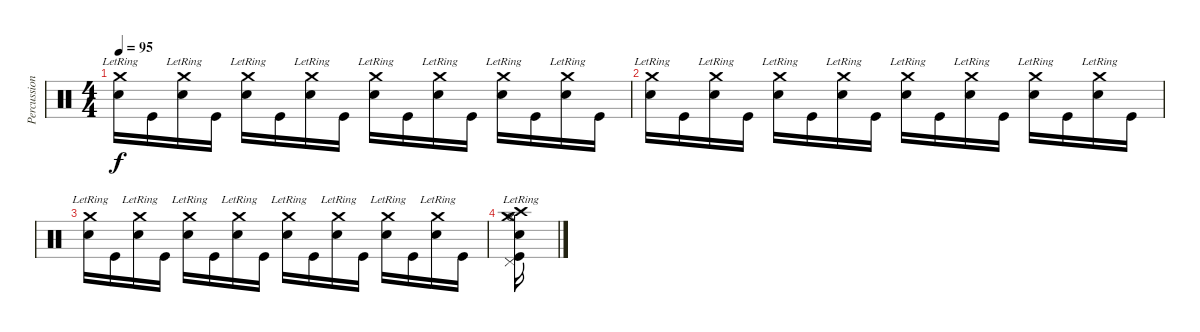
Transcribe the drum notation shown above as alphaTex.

\track ("Percussion" "Percussion") {instrument percussion}
\staff {score}
\articulation defaults
\ts (4 4)
\tempo 95
\clef neutral
\ks c
("Crash medium (hit)"{lr} "Snare (hit) 2").16{dy f} "Kick (hit)".16 ("Crash medium (hit)"{lr} "Snare (hit) 2").16 "Kick (hit)".16 ("Crash medium (hit)"{lr} "Snare (hit) 2").16 "Kick (hit)".16 ("Crash medium (hit)"{lr} "Snare (hit) 2").16 "Kick (hit)".16 ("Crash medium (hit)"{lr} "Snare (hit) 2").16 "Kick (hit)".16 ("Crash medium (hit)"{lr} "Snare (hit) 2").16 "Kick (hit)".16 ("Crash medium (hit)"{lr} "Snare (hit) 2").16 "Kick (hit)".16 ("Crash medium (hit)"{lr} "Snare (hit) 2").16 "Kick (hit)".16 |
("Crash medium (hit)"{lr} "Snare (hit) 2").16 "Kick (hit)".16 ("Crash medium (hit)"{lr} "Snare (hit) 2").16 "Kick (hit)".16 ("Crash medium (hit)"{lr} "Snare (hit) 2").16 "Kick (hit)".16 ("Crash medium (hit)"{lr} "Snare (hit) 2").16 "Kick (hit)".16 ("Crash medium (hit)"{lr} "Snare (hit) 2").16 "Kick (hit)".16 ("Crash medium (hit)"{lr} "Snare (hit) 2").16 "Kick (hit)".16 ("Crash medium (hit)"{lr} "Snare (hit) 2").16 "Kick (hit)".16 ("Crash medium (hit)"{lr} "Snare (hit) 2").16 "Kick (hit)".16 |
("Crash medium (hit)"{lr} "Snare (hit) 2").16 "Kick (hit)".16 ("Crash medium (hit)"{lr} "Snare (hit) 2").16 "Kick (hit)".16 ("Crash medium (hit)"{lr} "Snare (hit) 2").16 "Kick (hit)".16 ("Crash medium (hit)"{lr} "Snare (hit) 2").16 "Kick (hit)".16 ("Crash medium (hit)"{lr} "Snare (hit) 2").16 "Kick (hit)".16 ("Crash medium (hit)"{lr} "Snare (hit) 2").16 "Kick (hit)".16 ("Crash medium (hit)"{lr} "Snare (hit) 2").16 "Kick (hit)".16 ("Crash medium (hit)"{lr} "Snare (hit) 2").16 "Kick (hit)".16 |
("Pedal Hi-Hat (hit)"{lr} "Crash medium (hit)"{lr} "Crash high (hit)"{lr} "Hi-Hat (open)"{lr} "Snare (hit) 2"{lr} "Kick (hit)"{lr}).16
